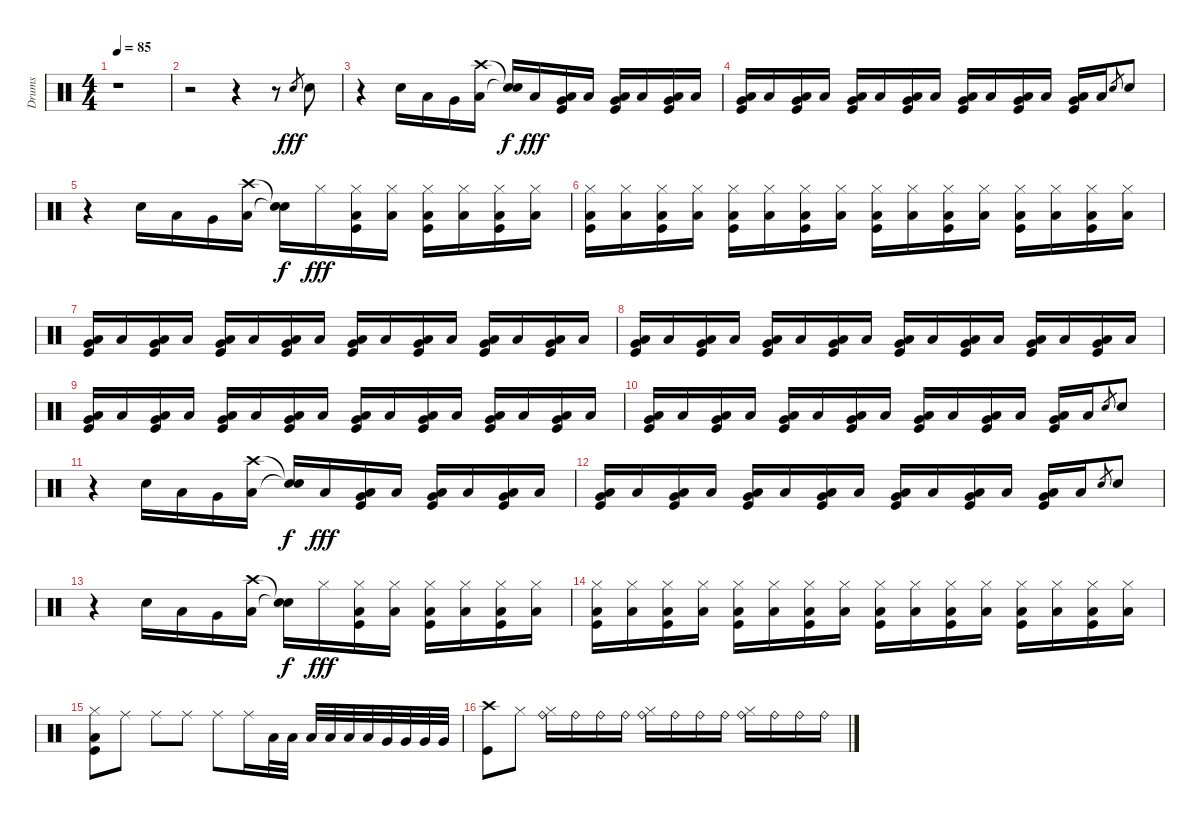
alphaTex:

\track ("Drums" "Drums") {instrument percussion}
\staff {score}
\articulation defaults
\ts (4 4)
\tempo 85
\clef neutral
\ks c
r.1{dy fff} |
r.2 r.4 r.8 "Snare (hit) 2".8{gr} "Snare (hit) 2".8 |
r.4 "Snare (hit) 2".16 "Low Tom (hit)".16 "Very Low Tom (hit)".16 ("Crash high (hit)" "Low Floor Tom (hit)").16 ("Snare (hit)"{t} "Snare (hit)"{t}).16{dy f} "Low Floor Tom (hit)".16{dy fff} ("Very Low Tom (hit)" "Low Floor Tom (hit)" "Kick (hit)").16 "Low Floor Tom (hit)".16 ("Very Low Tom (hit)" "Low Floor Tom (hit)" "Kick (hit)").16 "Low Floor Tom (hit)".16 ("Very Low Tom (hit)" "Low Floor Tom (hit)" "Kick (hit)").16 "Low Floor Tom (hit)".16 |
("Very Low Tom (hit)" "Low Floor Tom (hit)" "Kick (hit)").16 "Low Floor Tom (hit)".16 ("Very Low Tom (hit)" "Low Floor Tom (hit)" "Kick (hit)").16 "Low Floor Tom (hit)".16 ("Very Low Tom (hit)" "Low Floor Tom (hit)" "Kick (hit)").16 "Low Floor Tom (hit)".16 ("Very Low Tom (hit)" "Low Floor Tom (hit)" "Kick (hit)").16 "Low Floor Tom (hit)".16 ("Very Low Tom (hit)" "Low Floor Tom (hit)" "Kick (hit)").16 "Low Floor Tom (hit)".16 ("Very Low Tom (hit)" "Low Floor Tom (hit)" "Kick (hit)").16 "Low Floor Tom (hit)".16 ("Very Low Tom (hit)" "Low Floor Tom (hit)" "Kick (hit)").16 "Low Floor Tom (hit)".16 "Snare (hit) 2".8{gr} "Snare (hit) 2".8 |
r.4 "Snare (hit) 2".16 "Low Tom (hit)".16 "Very Low Tom (hit)".16 ("Crash high (hit)" "Low Floor Tom (hit)").16 ("Snare (hit)"{t} "Snare (hit)"{t}).16{dy f} "Hi-Hat (closed)".16{dy fff} ("Hi-Hat (closed)" "Low Floor Tom (hit)" "Kick (hit)").16 ("Hi-Hat (closed)" "Low Floor Tom (hit)").16 ("Hi-Hat (closed)" "Low Floor Tom (hit)" "Kick (hit)").16 ("Hi-Hat (closed)" "Low Floor Tom (hit)").16 ("Hi-Hat (closed)" "Low Floor Tom (hit)" "Kick (hit)").16 ("Hi-Hat (closed)" "Low Floor Tom (hit)").16 |
("Hi-Hat (closed)" "Low Floor Tom (hit)" "Kick (hit)").16 ("Hi-Hat (closed)" "Low Floor Tom (hit)").16 ("Hi-Hat (closed)" "Low Floor Tom (hit)" "Kick (hit)").16 ("Hi-Hat (closed)" "Low Floor Tom (hit)").16 ("Hi-Hat (closed)" "Low Floor Tom (hit)" "Kick (hit)").16 ("Hi-Hat (closed)" "Low Floor Tom (hit)").16 ("Hi-Hat (closed)" "Low Floor Tom (hit)" "Kick (hit)").16 ("Hi-Hat (closed)" "Low Floor Tom (hit)").16 ("Hi-Hat (closed)" "Low Floor Tom (hit)" "Kick (hit)").16 ("Hi-Hat (closed)" "Low Floor Tom (hit)").16 ("Hi-Hat (closed)" "Low Floor Tom (hit)" "Kick (hit)").16 ("Hi-Hat (closed)" "Low Floor Tom (hit)").16 ("Hi-Hat (closed)" "Low Floor Tom (hit)" "Kick (hit)").16 ("Hi-Hat (closed)" "Low Floor Tom (hit)").16 ("Hi-Hat (closed)" "Low Floor Tom (hit)" "Kick (hit)").16 ("Hi-Hat (closed)" "Low Floor Tom (hit)").16 |
("Very Low Tom (hit)" "Low Floor Tom (hit)" "Kick (hit)").16 "Low Floor Tom (hit)".16 ("Very Low Tom (hit)" "Low Floor Tom (hit)" "Kick (hit)").16 "Low Floor Tom (hit)".16 ("Very Low Tom (hit)" "Low Floor Tom (hit)" "Kick (hit)").16 "Low Floor Tom (hit)".16 ("Very Low Tom (hit)" "Low Floor Tom (hit)" "Kick (hit)").16 "Low Floor Tom (hit)".16 ("Very Low Tom (hit)" "Low Floor Tom (hit)" "Kick (hit)").16 "Low Floor Tom (hit)".16 ("Very Low Tom (hit)" "Low Floor Tom (hit)" "Kick (hit)").16 "Low Floor Tom (hit)".16 ("Very Low Tom (hit)" "Low Floor Tom (hit)" "Kick (hit)").16 "Low Floor Tom (hit)".16 ("Very Low Tom (hit)" "Low Floor Tom (hit)" "Kick (hit)").16 "Low Floor Tom (hit)".16 |
("Very Low Tom (hit)" "Low Floor Tom (hit)" "Kick (hit)").16 "Low Floor Tom (hit)".16 ("Very Low Tom (hit)" "Low Floor Tom (hit)" "Kick (hit)").16 "Low Floor Tom (hit)".16 ("Very Low Tom (hit)" "Low Floor Tom (hit)" "Kick (hit)").16 "Low Floor Tom (hit)".16 ("Very Low Tom (hit)" "Low Floor Tom (hit)" "Kick (hit)").16 "Low Floor Tom (hit)".16 ("Very Low Tom (hit)" "Low Floor Tom (hit)" "Kick (hit)").16 "Low Floor Tom (hit)".16 ("Very Low Tom (hit)" "Low Floor Tom (hit)" "Kick (hit)").16 "Low Floor Tom (hit)".16 ("Very Low Tom (hit)" "Low Floor Tom (hit)" "Kick (hit)").16 "Low Floor Tom (hit)".16 ("Very Low Tom (hit)" "Low Floor Tom (hit)" "Kick (hit)").16 "Low Floor Tom (hit)".16 |
("Very Low Tom (hit)" "Low Floor Tom (hit)" "Kick (hit)").16 "Low Floor Tom (hit)".16 ("Very Low Tom (hit)" "Low Floor Tom (hit)" "Kick (hit)").16 "Low Floor Tom (hit)".16 ("Very Low Tom (hit)" "Low Floor Tom (hit)" "Kick (hit)").16 "Low Floor Tom (hit)".16 ("Very Low Tom (hit)" "Low Floor Tom (hit)" "Kick (hit)").16 "Low Floor Tom (hit)".16 ("Very Low Tom (hit)" "Low Floor Tom (hit)" "Kick (hit)").16 "Low Floor Tom (hit)".16 ("Very Low Tom (hit)" "Low Floor Tom (hit)" "Kick (hit)").16 "Low Floor Tom (hit)".16 ("Very Low Tom (hit)" "Low Floor Tom (hit)" "Kick (hit)").16 "Low Floor Tom (hit)".16 ("Very Low Tom (hit)" "Low Floor Tom (hit)" "Kick (hit)").16 "Low Floor Tom (hit)".16 |
("Very Low Tom (hit)" "Low Floor Tom (hit)" "Kick (hit)").16 "Low Floor Tom (hit)".16 ("Very Low Tom (hit)" "Low Floor Tom (hit)" "Kick (hit)").16 "Low Floor Tom (hit)".16 ("Very Low Tom (hit)" "Low Floor Tom (hit)" "Kick (hit)").16 "Low Floor Tom (hit)".16 ("Very Low Tom (hit)" "Low Floor Tom (hit)" "Kick (hit)").16 "Low Floor Tom (hit)".16 ("Very Low Tom (hit)" "Low Floor Tom (hit)" "Kick (hit)").16 "Low Floor Tom (hit)".16 ("Very Low Tom (hit)" "Low Floor Tom (hit)" "Kick (hit)").16 "Low Floor Tom (hit)".16 ("Very Low Tom (hit)" "Low Floor Tom (hit)" "Kick (hit)").16 "Low Floor Tom (hit)".16 "Snare (hit) 2".8{gr} "Snare (hit) 2".8 |
r.4 "Snare (hit) 2".16 "Low Tom (hit)".16 "Very Low Tom (hit)".16 ("Crash high (hit)" "Low Floor Tom (hit)").16 ("Snare (hit)"{t} "Snare (hit)"{t}).16{dy f} "Low Floor Tom (hit)".16{dy fff} ("Very Low Tom (hit)" "Low Floor Tom (hit)" "Kick (hit)").16 "Low Floor Tom (hit)".16 ("Very Low Tom (hit)" "Low Floor Tom (hit)" "Kick (hit)").16 "Low Floor Tom (hit)".16 ("Very Low Tom (hit)" "Low Floor Tom (hit)" "Kick (hit)").16 "Low Floor Tom (hit)".16 |
("Very Low Tom (hit)" "Low Floor Tom (hit)" "Kick (hit)").16 "Low Floor Tom (hit)".16 ("Very Low Tom (hit)" "Low Floor Tom (hit)" "Kick (hit)").16 "Low Floor Tom (hit)".16 ("Very Low Tom (hit)" "Low Floor Tom (hit)" "Kick (hit)").16 "Low Floor Tom (hit)".16 ("Very Low Tom (hit)" "Low Floor Tom (hit)" "Kick (hit)").16 "Low Floor Tom (hit)".16 ("Very Low Tom (hit)" "Low Floor Tom (hit)" "Kick (hit)").16 "Low Floor Tom (hit)".16 ("Very Low Tom (hit)" "Low Floor Tom (hit)" "Kick (hit)").16 "Low Floor Tom (hit)".16 ("Very Low Tom (hit)" "Low Floor Tom (hit)" "Kick (hit)").16 "Low Floor Tom (hit)".16 "Snare (hit) 2".8{gr} "Snare (hit) 2".8 |
r.4 "Snare (hit) 2".16 "Low Tom (hit)".16 "Very Low Tom (hit)".16 ("Crash high (hit)" "Low Floor Tom (hit)").16 ("Snare (hit)"{t} "Snare (hit)"{t}).16{dy f} "Hi-Hat (closed)".16{dy fff} ("Hi-Hat (closed)" "Low Floor Tom (hit)" "Kick (hit)").16 ("Hi-Hat (closed)" "Low Floor Tom (hit)").16 ("Hi-Hat (closed)" "Low Floor Tom (hit)" "Kick (hit)").16 ("Hi-Hat (closed)" "Low Floor Tom (hit)").16 ("Hi-Hat (closed)" "Low Floor Tom (hit)" "Kick (hit)").16 ("Hi-Hat (closed)" "Low Floor Tom (hit)").16 |
("Hi-Hat (closed)" "Low Floor Tom (hit)" "Kick (hit)").16 ("Hi-Hat (closed)" "Low Floor Tom (hit)").16 ("Hi-Hat (closed)" "Low Floor Tom (hit)" "Kick (hit)").16 ("Hi-Hat (closed)" "Low Floor Tom (hit)").16 ("Hi-Hat (closed)" "Low Floor Tom (hit)" "Kick (hit)").16 ("Hi-Hat (closed)" "Low Floor Tom (hit)").16 ("Hi-Hat (closed)" "Low Floor Tom (hit)" "Kick (hit)").16 ("Hi-Hat (closed)" "Low Floor Tom (hit)").16 ("Hi-Hat (closed)" "Low Floor Tom (hit)" "Kick (hit)").16 ("Hi-Hat (closed)" "Low Floor Tom (hit)").16 ("Hi-Hat (closed)" "Low Floor Tom (hit)" "Kick (hit)").16 ("Hi-Hat (closed)" "Low Floor Tom (hit)").16 ("Hi-Hat (closed)" "Low Floor Tom (hit)" "Kick (hit)").16 ("Hi-Hat (closed)" "Low Floor Tom (hit)").16 ("Hi-Hat (closed)" "Low Floor Tom (hit)" "Kick (hit)").16 ("Hi-Hat (closed)" "Low Floor Tom (hit)").16 |
("Hi-Hat (closed)" "Low Floor Tom (hit)" "Kick (hit)").8 "Ride (middle)".8 "Ride (middle)".8 "Ride (middle)".8 "Ride (middle)".8 "Ride (middle)".16 "Low Tom (hit)".32 "Low Tom (hit)".32 "Low Tom (hit)".32 "Low Tom (hit)".32 "Low Tom (hit)".32 "Low Tom (hit)".32 "Very Low Tom (hit)".32 "Very Low Tom (hit)".32 "Very Low Tom (hit)".32 "Very Low Tom (hit)".32 |
("Crash high (hit)" "Kick (hit)").8 "Hi-Hat (closed)".8 ("Hi-Hat (closed)" "Ride (bell)").16 "Ride (bell)".16 "Ride (bell)".16 "Ride (bell)".16 ("Hi-Hat (closed)" "Ride (bell)").16 "Ride (bell)".16 "Ride (bell)".16 "Ride (bell)".16 ("Hi-Hat (closed)" "Ride (bell)").16 "Ride (bell)".16 "Ride (bell)".16 "Ride (bell)".16
